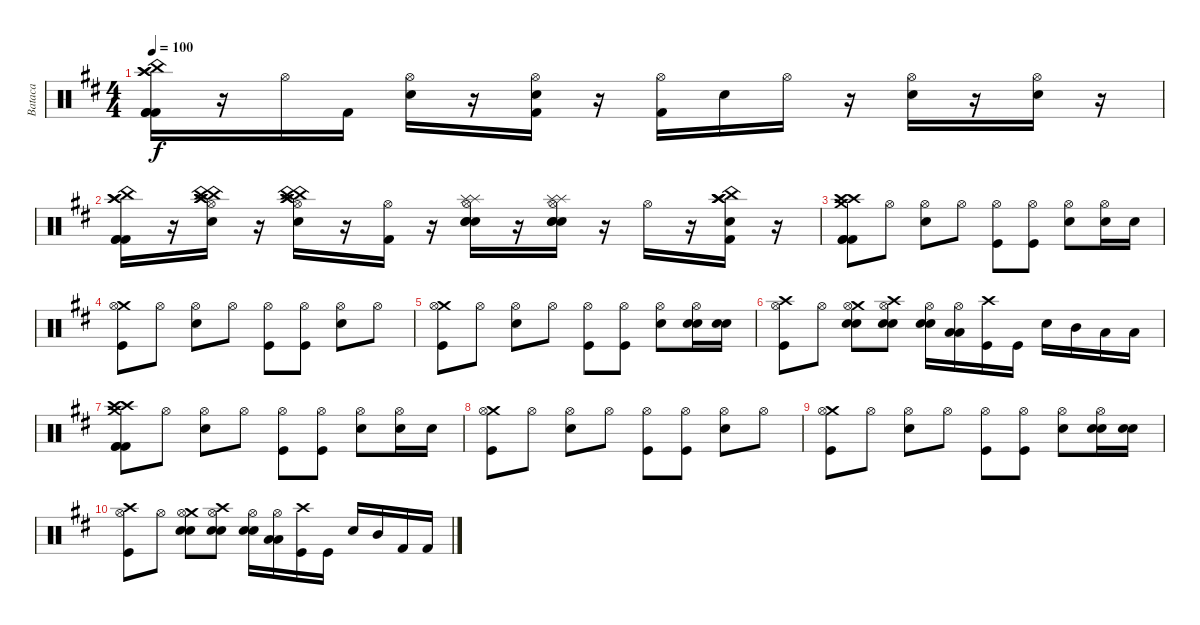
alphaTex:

\track ("Bataca" "Bataca") {instrument percussion}
\staff {score}
\articulation defaults
\ts (4 4)
\tempo 100
\clef neutral
\ks d
("Crash high (hit)" "Crash high (hit)" "China (hit)" "Kick (hit) 2" "Kick (hit) 2" "Kick (hit) 2").16{dy f} r.16 "Hi-Hat (open)".16 "Kick (hit) 2".16 ("Hi-Hat (open)" "Snare (hit) 2").16 r.16 ("Hi-Hat (open)" "Snare (hit) 2" "Kick (hit) 2").16 r.16 ("Hi-Hat (open)" "Kick (hit) 2").16 "Snare (hit) 2".16 "Hi-Hat (open)".16 r.16 ("Hi-Hat (open)" "Snare (hit) 2").16 r.16 ("Hi-Hat (open)" "Snare (hit) 2").16 r.16 |
("Crash high (hit)" "Crash high (hit)" "China (hit)" "Kick (hit) 2" "Kick (hit) 2" "Kick (hit) 2").16 r.16 ("Hi-Hat (open)" "Snare (hit) 2" "Crash high (hit)" "Crash high (hit)" "China (hit)" "China (hit)").16 r.16 ("Hi-Hat (open)" "Snare (hit) 2" "Crash high (hit)" "Crash high (hit)" "China (hit)" "China (hit)").16 r.16 ("Hi-Hat (open)" "Kick (hit) 2").16 r.16 ("Hi-Hat (open)" "Snare (hit) 2" "Snare (hit)" "Snare (hit)" "Splash (hit)" "Splash (hit)").16 r.16 ("Hi-Hat (open)" "Snare (hit) 2" "Snare (hit)" "Snare (hit)" "Splash (hit)" "Splash (hit)").16 r.16 "Hi-Hat (open)".16 r.16 ("Kick (hit) 2" "Snare (hit) 2" "Crash high (hit)" "Crash high (hit)" "China (hit)" "Crash high (hit)").16 r.16 |
("Crash medium (hit)" "Crash high (hit)" "Crash high (hit)" "Kick (hit) 2" "Kick (hit) 2" "Kick (hit) 2").8 "Hi-Hat (open)".8 ("Hi-Hat (open)" "Snare (hit) 2").8 "Hi-Hat (open)".8 ("Hi-Hat (open)" "Kick (hit)").8 ("Hi-Hat (open)" "Kick (hit)").8 ("Hi-Hat (open)" "Snare (hit) 2").8 ("Hi-Hat (open)" "Snare (hit) 2").16 "Snare (hit) 2".16 |
("Crash medium (hit)" "Hi-Hat (open)" "Kick (hit)").8 "Hi-Hat (open)".8 ("Hi-Hat (open)" "Snare (hit) 2").8 "Hi-Hat (open)".8 ("Hi-Hat (open)" "Kick (hit)").8 ("Hi-Hat (open)" "Kick (hit)").8 ("Hi-Hat (open)" "Snare (hit) 2").8 "Hi-Hat (open)".8 |
("Crash medium (hit)" "Hi-Hat (open)" "Kick (hit)").8 "Hi-Hat (open)".8 ("Hi-Hat (open)" "Snare (hit) 2").8 "Hi-Hat (open)".8 ("Hi-Hat (open)" "Kick (hit)").8 ("Hi-Hat (open)" "Kick (hit)").8 ("Hi-Hat (open)" "Snare (hit) 2").8 ("Hi-Hat (open)" "Snare (hit) 2" "Snare (hit) 2").16 ("Snare (hit) 2" "Snare (hit) 2").16 |
("Crash high (hit)" "Hi-Hat (open)" "Kick (hit)").8 "Hi-Hat (open)".8 ("Crash medium (hit)" "Hi-Hat (open)" "Snare (hit) 2" "Snare (hit) 2").8 ("Crash high (hit)" "Hi-Hat (open)" "Snare (hit) 2" "Snare (hit) 2").8 ("Hi-Hat (open)" "Snare (hit) 2" "Snare (hit) 2").16 ("Hi-Hat (open)" "Low Floor Tom (hit)" "Low Floor Tom (hit)").16 ("Crash high (hit)" "Kick (hit)").16 "Kick (hit)".16 "Snare (hit) 2".16 "Mid Tom (hit)".16 "Low Tom (hit)".16 "Low Tom (hit)".16 |
("Crash medium (hit)" "Crash high (hit)" "Crash high (hit)" "Kick (hit) 2" "Kick (hit) 2" "Kick (hit) 2").8 "Hi-Hat (open)".8 ("Hi-Hat (open)" "Snare (hit) 2").8 "Hi-Hat (open)".8 ("Hi-Hat (open)" "Kick (hit)").8 ("Hi-Hat (open)" "Kick (hit)").8 ("Hi-Hat (open)" "Snare (hit) 2").8 ("Hi-Hat (open)" "Snare (hit) 2").16 "Snare (hit) 2".16 |
("Crash medium (hit)" "Hi-Hat (open)" "Kick (hit)").8 "Hi-Hat (open)".8 ("Hi-Hat (open)" "Snare (hit) 2").8 "Hi-Hat (open)".8 ("Hi-Hat (open)" "Kick (hit)").8 ("Hi-Hat (open)" "Kick (hit)").8 ("Hi-Hat (open)" "Snare (hit) 2").8 "Hi-Hat (open)".8 |
("Crash medium (hit)" "Hi-Hat (open)" "Kick (hit)").8 "Hi-Hat (open)".8 ("Hi-Hat (open)" "Snare (hit) 2").8 "Hi-Hat (open)".8 ("Hi-Hat (open)" "Kick (hit)").8 ("Hi-Hat (open)" "Kick (hit)").8 ("Hi-Hat (open)" "Snare (hit) 2").8 ("Hi-Hat (open)" "Snare (hit) 2" "Snare (hit) 2").16 ("Snare (hit) 2" "Snare (hit) 2").16 |
("Crash high (hit)" "Hi-Hat (open)" "Kick (hit)").8 "Hi-Hat (open)".8 ("Crash medium (hit)" "Hi-Hat (open)" "Snare (hit) 2" "Snare (hit) 2").8 ("Crash high (hit)" "Hi-Hat (open)" "Snare (hit) 2" "Snare (hit) 2").8 ("Hi-Hat (open)" "Snare (hit) 2" "Snare (hit) 2").16 ("Hi-Hat (open)" "Low Floor Tom (hit)" "Low Floor Tom (hit)").16 ("Crash high (hit)" "Kick (hit)").16 "Kick (hit)".16 "Snare (hit) 2".16 "Mid Tom (hit)".16 "Kick (hit) 2".16 "Kick (hit) 2".16
